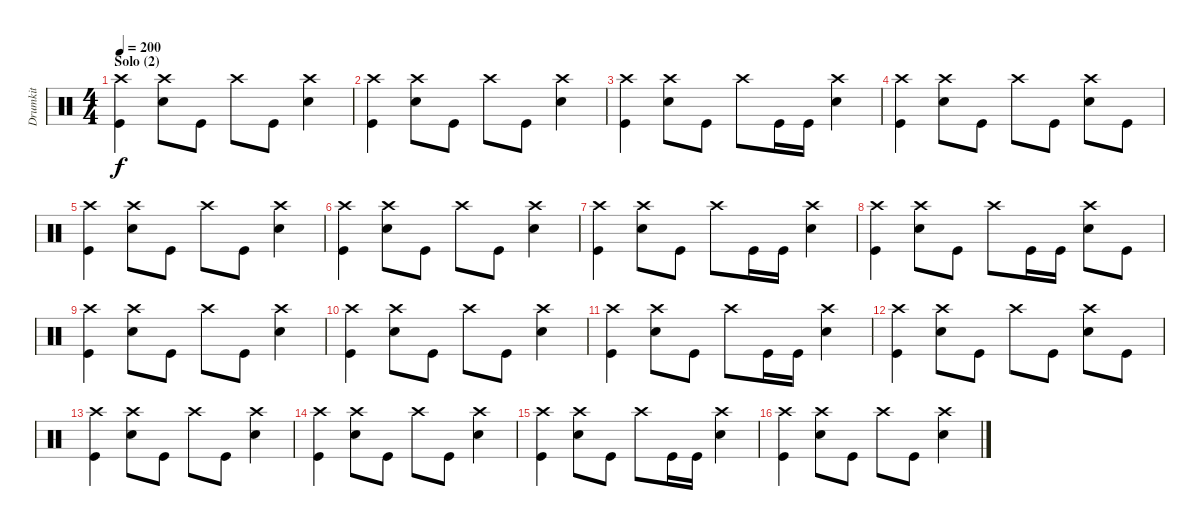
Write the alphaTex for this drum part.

\track ("Drumkit" "Drumkit") {instrument percussion}
\staff {score}
\articulation defaults
\ts (4 4)
\section ("" "Solo (2)")
\tempo 200
\clef neutral
\ks c
("Kick (hit)" "Crash high (hit)").4{dy f} ("Snare (hit) 2" "Crash high (hit)").8 "Kick (hit)".8 "Crash high (hit)".8 "Kick (hit)".8 ("Snare (hit) 2" "Crash high (hit)").4 |
("Kick (hit)" "Crash high (hit)").4 ("Snare (hit) 2" "Crash high (hit)").8 "Kick (hit)".8 "Crash high (hit)".8 "Kick (hit)".8 ("Snare (hit) 2" "Crash high (hit)").4 |
("Kick (hit)" "Crash high (hit)").4 ("Snare (hit) 2" "Crash high (hit)").8 "Kick (hit)".8 "Crash high (hit)".8 "Kick (hit)".16 "Kick (hit)".16 ("Snare (hit) 2" "Crash high (hit)").4 |
("Kick (hit)" "Crash high (hit)").4 ("Snare (hit) 2" "Crash high (hit)").8 "Kick (hit)".8 "Crash high (hit)".8 "Kick (hit)".8 ("Snare (hit) 2" "Crash high (hit)").8 "Kick (hit)".8 |
("Kick (hit)" "Crash high (hit)").4 ("Snare (hit) 2" "Crash high (hit)").8 "Kick (hit)".8 "Crash high (hit)".8 "Kick (hit)".8 ("Snare (hit) 2" "Crash high (hit)").4 |
("Kick (hit)" "Crash high (hit)").4 ("Snare (hit) 2" "Crash high (hit)").8 "Kick (hit)".8 "Crash high (hit)".8 "Kick (hit)".8 ("Snare (hit) 2" "Crash high (hit)").4 |
("Kick (hit)" "Crash high (hit)").4 ("Snare (hit) 2" "Crash high (hit)").8 "Kick (hit)".8 "Crash high (hit)".8 "Kick (hit)".16 "Kick (hit)".16 ("Snare (hit) 2" "Crash high (hit)").4 |
("Kick (hit)" "Crash high (hit)").4 ("Snare (hit) 2" "Crash high (hit)").8 "Kick (hit)".8 "Crash high (hit)".8 "Kick (hit)".16 "Kick (hit)".16 ("Snare (hit) 2" "Crash high (hit)").8 "Kick (hit)".8 |
("Kick (hit)" "Crash high (hit)").4 ("Snare (hit) 2" "Crash high (hit)").8 "Kick (hit)".8 "Crash high (hit)".8 "Kick (hit)".8 ("Snare (hit) 2" "Crash high (hit)").4 |
("Kick (hit)" "Crash high (hit)").4 ("Snare (hit) 2" "Crash high (hit)").8 "Kick (hit)".8 "Crash high (hit)".8 "Kick (hit)".8 ("Snare (hit) 2" "Crash high (hit)").4 |
("Kick (hit)" "Crash high (hit)").4 ("Snare (hit) 2" "Crash high (hit)").8 "Kick (hit)".8 "Crash high (hit)".8 "Kick (hit)".16 "Kick (hit)".16 ("Snare (hit) 2" "Crash high (hit)").4 |
("Kick (hit)" "Crash high (hit)").4 ("Snare (hit) 2" "Crash high (hit)").8 "Kick (hit)".8 "Crash high (hit)".8 "Kick (hit)".8 ("Snare (hit) 2" "Crash high (hit)").8 "Kick (hit)".8 |
("Kick (hit)" "Crash high (hit)").4 ("Snare (hit) 2" "Crash high (hit)").8 "Kick (hit)".8 "Crash high (hit)".8 "Kick (hit)".8 ("Snare (hit) 2" "Crash high (hit)").4 |
("Kick (hit)" "Crash high (hit)").4 ("Snare (hit) 2" "Crash high (hit)").8 "Kick (hit)".8 "Crash high (hit)".8 "Kick (hit)".8 ("Snare (hit) 2" "Crash high (hit)").4 |
("Kick (hit)" "Crash high (hit)").4 ("Snare (hit) 2" "Crash high (hit)").8 "Kick (hit)".8 "Crash high (hit)".8 "Kick (hit)".16 "Kick (hit)".16 ("Snare (hit) 2" "Crash high (hit)").4 |
("Kick (hit)" "Crash high (hit)").4 ("Snare (hit) 2" "Crash high (hit)").8 "Kick (hit)".8 "Crash high (hit)".8 "Kick (hit)".8 ("Snare (hit) 2" "Crash high (hit)").4
